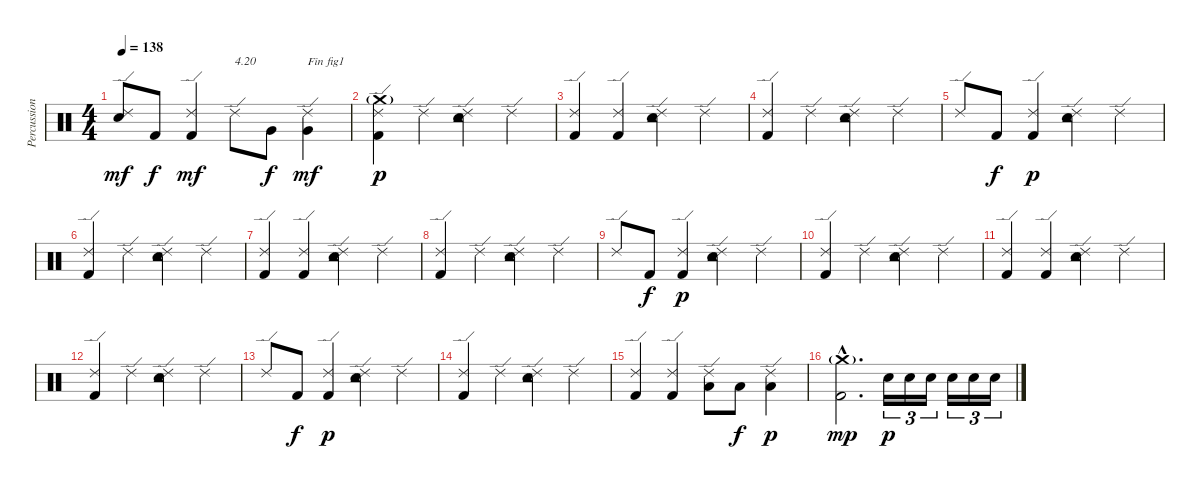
\track ("Percussions" "Percussion") {instrument percussion}
\staff {score}
\articulation defaults
\ts (4 4)
\tempo 138
\clef neutral
\ks c
("Snare (hit)"{t} "Ride (edge) 2").8{dy mf} "Kick (hit) 2".8{dy f} ("Kick (hit) 2" "Ride (edge) 2").4{dy mf} "Ride (edge) 2".8{txt "4.20"} "Very Low Tom (hit)".8{dy f} ("Very Low Tom (hit)" "Ride (edge) 2").4{txt "Fin fig1" dy mf} |
("Kick (hit) 2" "Crash medium (hit)"{g} "Ride (edge) 2").4{dy p} "Ride (edge) 2".4 ("Snare (hit) 2" "Tambourine (hit)" "Ride (edge) 2").4 "Ride (edge) 2".4 |
("Kick (hit) 2" "Ride (edge) 2").4 ("Kick (hit) 2" "Ride (edge) 2").4 ("Snare (hit) 2" "Tambourine (hit)" "Ride (edge) 2").4 "Ride (edge) 2".4 |
("Kick (hit) 2" "Ride (edge) 2").4 "Ride (edge) 2".4 ("Snare (hit) 2" "Tambourine (hit)" "Ride (edge) 2").4 "Ride (edge) 2".4 |
"Ride (edge) 2".8 "Kick (hit) 2".8{dy f} ("Kick (hit) 2" "Ride (edge) 2").4{dy p} ("Snare (hit) 2" "Tambourine (hit)" "Ride (edge) 2").4 "Ride (edge) 2".4 |
("Kick (hit) 2" "Ride (edge) 2").4 "Ride (edge) 2".4 ("Snare (hit) 2" "Tambourine (hit)" "Ride (edge) 2").4 "Ride (edge) 2".4 |
("Kick (hit) 2" "Ride (edge) 2").4 ("Kick (hit) 2" "Ride (edge) 2").4 ("Snare (hit) 2" "Tambourine (hit)" "Ride (edge) 2").4 "Ride (edge) 2".4 |
("Kick (hit) 2" "Ride (edge) 2").4 "Ride (edge) 2".4 ("Snare (hit) 2" "Tambourine (hit)" "Ride (edge) 2").4 "Ride (edge) 2".4 |
"Ride (edge) 2".8 "Kick (hit) 2".8{dy f} ("Kick (hit) 2" "Ride (edge) 2").4{dy p} ("Snare (hit) 2" "Tambourine (hit)" "Ride (edge) 2").4 "Ride (edge) 2".4 |
("Kick (hit) 2" "Ride (edge) 2").4 "Ride (edge) 2".4 ("Snare (hit) 2" "Tambourine (hit)" "Ride (edge) 2").4 "Ride (edge) 2".4 |
("Kick (hit) 2" "Ride (edge) 2").4 ("Kick (hit) 2" "Ride (edge) 2").4 ("Snare (hit) 2" "Tambourine (hit)" "Ride (edge) 2").4 "Ride (edge) 2".4 |
("Kick (hit) 2" "Ride (edge) 2").4 "Ride (edge) 2".4 ("Snare (hit) 2" "Tambourine (hit)" "Ride (edge) 2").4 "Ride (edge) 2".4 |
"Ride (edge) 2".8 "Kick (hit) 2".8{dy f} ("Kick (hit) 2" "Ride (edge) 2").4{dy p} ("Snare (hit) 2" "Tambourine (hit)" "Ride (edge) 2").4 "Ride (edge) 2".4 |
("Kick (hit) 2" "Ride (edge) 2").4 "Ride (edge) 2".4 ("Snare (hit) 2" "Tambourine (hit)" "Ride (edge) 2").4 "Ride (edge) 2".4 |
("Kick (hit) 2" "Ride (edge) 2").4 ("Kick (hit) 2" "Ride (edge) 2").4 ("Low Floor Tom (hit)" "Ride (edge) 2").8 "Low Floor Tom (hit)".8{dy f} ("Low Floor Tom (hit)" "Ride (edge) 2").4{dy p} |
("Kick (hit) 2"{hac} "Crash medium (hit)"{g hac}).2{d dy mp} "Snare (hit) 2".16{tu (3 2) dy p} "Snare (hit) 2".16{tu (3 2)} "Snare (hit) 2".16{tu (3 2)} "Snare (hit) 2".16{tu (3 2)} "Snare (hit) 2".16{tu (3 2)} "Snare (hit) 2".16{tu (3 2)}
